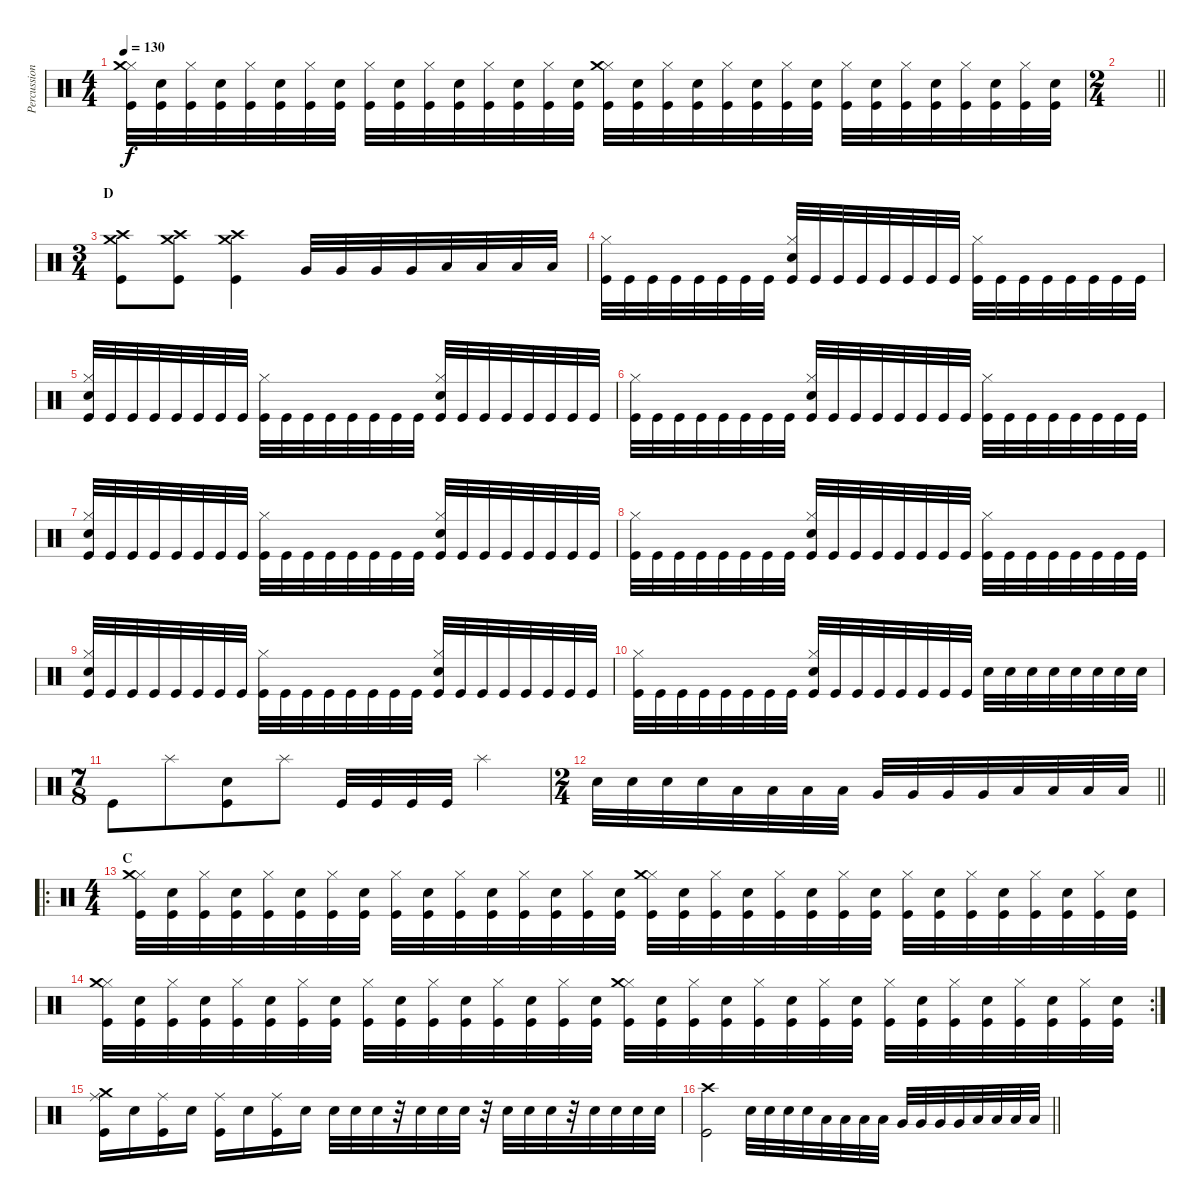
\track ("Percussion" "Percussion") {instrument percussion}
\staff {score}
\articulation defaults
\ts (4 4)
\tempo 130
\clef neutral
\ks c
("Kick (hit)" "Hi-Hat (closed)" "Crash medium (hit)").32{dy f} ("Kick (hit)" "Snare (hit) 2").32 ("Kick (hit)" "Hi-Hat (closed)").32 ("Kick (hit)" "Snare (hit) 2").32 ("Kick (hit)" "Hi-Hat (closed)").32 ("Kick (hit)" "Snare (hit) 2").32 ("Kick (hit)" "Hi-Hat (closed)").32 ("Kick (hit)" "Snare (hit) 2").32 ("Kick (hit)" "Hi-Hat (closed)").32 ("Kick (hit)" "Snare (hit) 2").32 ("Kick (hit)" "Hi-Hat (closed)").32 ("Kick (hit)" "Snare (hit) 2").32 ("Kick (hit)" "Hi-Hat (closed)").32 ("Kick (hit)" "Snare (hit) 2").32 ("Kick (hit)" "Hi-Hat (closed)").32 ("Kick (hit)" "Snare (hit) 2").32 ("Kick (hit)" "Hi-Hat (closed)" "Crash medium (hit)").32 ("Kick (hit)" "Snare (hit) 2").32 ("Kick (hit)" "Hi-Hat (closed)").32 ("Kick (hit)" "Snare (hit) 2").32 ("Kick (hit)" "Hi-Hat (closed)").32 ("Kick (hit)" "Snare (hit) 2").32 ("Kick (hit)" "Hi-Hat (closed)").32 ("Kick (hit)" "Snare (hit) 2").32 ("Kick (hit)" "Hi-Hat (closed)").32 ("Kick (hit)" "Snare (hit) 2").32 ("Kick (hit)" "Hi-Hat (closed)").32 ("Kick (hit)" "Snare (hit) 2").32 ("Kick (hit)" "Hi-Hat (closed)").32 ("Kick (hit)" "Snare (hit) 2").32 ("Kick (hit)" "Hi-Hat (closed)").32 ("Kick (hit)" "Snare (hit) 2").32 |
\ts (2 4)
\barLineRight lightlight
|
\ts (3 4)
\section ("" "D")
("Kick (hit)" "Crash medium (hit)" "Crash high (hit)").8 ("Kick (hit)" "Crash medium (hit)" "Crash high (hit)").8 ("Kick (hit)" "Crash medium (hit)" "Crash high (hit)").4 "Very Low Tom (hit)".32 "Very Low Tom (hit)".32 "Very Low Tom (hit)".32 "Very Low Tom (hit)".32 "Low Floor Tom (hit)".32 "Low Floor Tom (hit)".32 "Low Floor Tom (hit)".32 "Low Floor Tom (hit)".32 |
("Kick (hit)" "Hi-Hat (closed)").32 "Kick (hit)".32 "Kick (hit)".32 "Kick (hit)".32 "Kick (hit)".32 "Kick (hit)".32 "Kick (hit)".32 "Kick (hit)".32 ("Kick (hit)" "Hi-Hat (closed)" "Snare (hit) 2").32 "Kick (hit)".32 "Kick (hit)".32 "Kick (hit)".32 "Kick (hit)".32 "Kick (hit)".32 "Kick (hit)".32 "Kick (hit)".32 ("Kick (hit)" "Hi-Hat (closed)").32 "Kick (hit)".32 "Kick (hit)".32 "Kick (hit)".32 "Kick (hit)".32 "Kick (hit)".32 "Kick (hit)".32 "Kick (hit)".32 |
("Kick (hit)" "Hi-Hat (closed)" "Snare (hit) 2").32 "Kick (hit)".32 "Kick (hit)".32 "Kick (hit)".32 "Kick (hit)".32 "Kick (hit)".32 "Kick (hit)".32 "Kick (hit)".32 ("Kick (hit)" "Hi-Hat (closed)").32 "Kick (hit)".32 "Kick (hit)".32 "Kick (hit)".32 "Kick (hit)".32 "Kick (hit)".32 "Kick (hit)".32 "Kick (hit)".32 ("Kick (hit)" "Hi-Hat (closed)" "Snare (hit) 2").32 "Kick (hit)".32 "Kick (hit)".32 "Kick (hit)".32 "Kick (hit)".32 "Kick (hit)".32 "Kick (hit)".32 "Kick (hit)".32 |
("Kick (hit)" "Hi-Hat (closed)").32 "Kick (hit)".32 "Kick (hit)".32 "Kick (hit)".32 "Kick (hit)".32 "Kick (hit)".32 "Kick (hit)".32 "Kick (hit)".32 ("Kick (hit)" "Hi-Hat (closed)" "Snare (hit) 2").32 "Kick (hit)".32 "Kick (hit)".32 "Kick (hit)".32 "Kick (hit)".32 "Kick (hit)".32 "Kick (hit)".32 "Kick (hit)".32 ("Kick (hit)" "Hi-Hat (closed)").32 "Kick (hit)".32 "Kick (hit)".32 "Kick (hit)".32 "Kick (hit)".32 "Kick (hit)".32 "Kick (hit)".32 "Kick (hit)".32 |
("Kick (hit)" "Hi-Hat (closed)" "Snare (hit) 2").32 "Kick (hit)".32 "Kick (hit)".32 "Kick (hit)".32 "Kick (hit)".32 "Kick (hit)".32 "Kick (hit)".32 "Kick (hit)".32 ("Kick (hit)" "Hi-Hat (closed)").32 "Kick (hit)".32 "Kick (hit)".32 "Kick (hit)".32 "Kick (hit)".32 "Kick (hit)".32 "Kick (hit)".32 "Kick (hit)".32 ("Kick (hit)" "Hi-Hat (closed)" "Snare (hit) 2").32 "Kick (hit)".32 "Kick (hit)".32 "Kick (hit)".32 "Kick (hit)".32 "Kick (hit)".32 "Kick (hit)".32 "Kick (hit)".32 |
("Kick (hit)" "Hi-Hat (closed)").32 "Kick (hit)".32 "Kick (hit)".32 "Kick (hit)".32 "Kick (hit)".32 "Kick (hit)".32 "Kick (hit)".32 "Kick (hit)".32 ("Kick (hit)" "Hi-Hat (closed)" "Snare (hit) 2").32 "Kick (hit)".32 "Kick (hit)".32 "Kick (hit)".32 "Kick (hit)".32 "Kick (hit)".32 "Kick (hit)".32 "Kick (hit)".32 ("Kick (hit)" "Hi-Hat (closed)").32 "Kick (hit)".32 "Kick (hit)".32 "Kick (hit)".32 "Kick (hit)".32 "Kick (hit)".32 "Kick (hit)".32 "Kick (hit)".32 |
("Kick (hit)" "Hi-Hat (closed)" "Snare (hit) 2").32 "Kick (hit)".32 "Kick (hit)".32 "Kick (hit)".32 "Kick (hit)".32 "Kick (hit)".32 "Kick (hit)".32 "Kick (hit)".32 ("Kick (hit)" "Hi-Hat (closed)").32 "Kick (hit)".32 "Kick (hit)".32 "Kick (hit)".32 "Kick (hit)".32 "Kick (hit)".32 "Kick (hit)".32 "Kick (hit)".32 ("Kick (hit)" "Hi-Hat (closed)" "Snare (hit) 2").32 "Kick (hit)".32 "Kick (hit)".32 "Kick (hit)".32 "Kick (hit)".32 "Kick (hit)".32 "Kick (hit)".32 "Kick (hit)".32 |
("Kick (hit)" "Hi-Hat (closed)").32 "Kick (hit)".32 "Kick (hit)".32 "Kick (hit)".32 "Kick (hit)".32 "Kick (hit)".32 "Kick (hit)".32 "Kick (hit)".32 ("Kick (hit)" "Hi-Hat (closed)" "Snare (hit) 2").32 "Kick (hit)".32 "Kick (hit)".32 "Kick (hit)".32 "Kick (hit)".32 "Kick (hit)".32 "Kick (hit)".32 "Kick (hit)".32 "Snare (hit) 2".32 "Snare (hit) 2".32 "Snare (hit) 2".32 "Snare (hit) 2".32 "Snare (hit) 2".32 "Snare (hit) 2".32 "Snare (hit) 2".32 "Snare (hit) 2".32 |
\ts (7 8)
"Kick (hit)".8 "Splash (hit)".8 ("Kick (hit)" "Electric Snare (hit)").8 "Splash (hit)".8 "Kick (hit)".32 "Kick (hit)".32 "Kick (hit)".32 "Kick (hit)".32 "Splash (hit)".4 |
\ts (2 4)
\barLineRight lightlight "Snare (hit) 2".32 "Snare (hit) 2".32 "Snare (hit) 2".32 "Snare (hit) 2".32 "Low Tom (hit)".32 "Low Tom (hit)".32 "Low Tom (hit)".32 "Low Tom (hit)".32 "Very Low Tom (hit)".32 "Very Low Tom (hit)".32 "Very Low Tom (hit)".32 "Very Low Tom (hit)".32 "Low Floor Tom (hit)".32 "Low Floor Tom (hit)".32 "Low Floor Tom (hit)".32 "Low Floor Tom (hit)".32
|
\ro
\ts (4 4)
\section ("" "C")
("Kick (hit)" "Hi-Hat (closed)" "Crash medium (hit)").32 ("Kick (hit)" "Snare (hit) 2").32 ("Kick (hit)" "Hi-Hat (closed)").32 ("Kick (hit)" "Snare (hit) 2").32 ("Kick (hit)" "Hi-Hat (closed)").32 ("Kick (hit)" "Snare (hit) 2").32 ("Kick (hit)" "Hi-Hat (closed)").32 ("Kick (hit)" "Snare (hit) 2").32 ("Kick (hit)" "Hi-Hat (closed)").32 ("Kick (hit)" "Snare (hit) 2").32 ("Kick (hit)" "Hi-Hat (closed)").32 ("Kick (hit)" "Snare (hit) 2").32 ("Kick (hit)" "Hi-Hat (closed)").32 ("Kick (hit)" "Snare (hit) 2").32 ("Kick (hit)" "Hi-Hat (closed)").32 ("Kick (hit)" "Snare (hit) 2").32 ("Kick (hit)" "Hi-Hat (closed)" "Crash medium (hit)").32 ("Kick (hit)" "Snare (hit) 2").32 ("Kick (hit)" "Hi-Hat (closed)").32 ("Kick (hit)" "Snare (hit) 2").32 ("Kick (hit)" "Hi-Hat (closed)").32 ("Kick (hit)" "Snare (hit) 2").32 ("Kick (hit)" "Hi-Hat (closed)").32 ("Kick (hit)" "Snare (hit) 2").32 ("Kick (hit)" "Hi-Hat (closed)").32 ("Kick (hit)" "Snare (hit) 2").32 ("Kick (hit)" "Hi-Hat (closed)").32 ("Kick (hit)" "Snare (hit) 2").32 ("Kick (hit)" "Hi-Hat (closed)").32 ("Kick (hit)" "Snare (hit) 2").32 ("Kick (hit)" "Hi-Hat (closed)").32 ("Kick (hit)" "Snare (hit) 2").32 |
\rc 2
("Kick (hit)" "Hi-Hat (closed)" "Crash medium (hit)").32 ("Kick (hit)" "Snare (hit) 2").32 ("Kick (hit)" "Hi-Hat (closed)").32 ("Kick (hit)" "Snare (hit) 2").32 ("Kick (hit)" "Hi-Hat (closed)").32 ("Kick (hit)" "Snare (hit) 2").32 ("Kick (hit)" "Hi-Hat (closed)").32 ("Kick (hit)" "Snare (hit) 2").32 ("Kick (hit)" "Hi-Hat (closed)").32 ("Kick (hit)" "Snare (hit) 2").32 ("Kick (hit)" "Hi-Hat (closed)").32 ("Kick (hit)" "Snare (hit) 2").32 ("Kick (hit)" "Hi-Hat (closed)").32 ("Kick (hit)" "Snare (hit) 2").32 ("Kick (hit)" "Hi-Hat (closed)").32 ("Kick (hit)" "Snare (hit) 2").32 ("Kick (hit)" "Hi-Hat (closed)" "Crash medium (hit)").32 ("Kick (hit)" "Snare (hit) 2").32 ("Kick (hit)" "Hi-Hat (closed)").32 ("Kick (hit)" "Snare (hit) 2").32 ("Kick (hit)" "Hi-Hat (closed)").32 ("Kick (hit)" "Snare (hit) 2").32 ("Kick (hit)" "Hi-Hat (closed)").32 ("Kick (hit)" "Snare (hit) 2").32 ("Kick (hit)" "Hi-Hat (closed)").32 ("Kick (hit)" "Snare (hit) 2").32 ("Kick (hit)" "Hi-Hat (closed)").32 ("Kick (hit)" "Snare (hit) 2").32 ("Kick (hit)" "Hi-Hat (closed)").32 ("Kick (hit)" "Snare (hit) 2").32 ("Kick (hit)" "Hi-Hat (closed)").32 ("Kick (hit)" "Snare (hit) 2").32 |
("Kick (hit)" "Ride (middle)" "Crash medium (hit)").16 "Snare (hit) 2".16 ("Kick (hit)" "Ride (middle)").16 "Snare (hit) 2".16 ("Kick (hit)" "Ride (middle)").16 "Snare (hit) 2".16 ("Kick (hit)" "Ride (middle)").16 "Snare (hit) 2".16 "Snare (hit) 2".32 "Snare (hit) 2".32 "Snare (hit) 2".32 r.32 "Snare (hit) 2".32 "Snare (hit) 2".32 "Snare (hit) 2".32 r.32 "Snare (hit) 2".32 "Snare (hit) 2".32 "Snare (hit) 2".32 r.32 "Snare (hit) 2".32 "Snare (hit) 2".32 "Snare (hit) 2".32 "Snare (hit) 2".32 |
\barLineRight lightlight
("Kick (hit)" "Crash high (hit)").2 "Snare (hit) 2".32 "Snare (hit) 2".32 "Snare (hit) 2".32 "Snare (hit) 2".32 "Low Tom (hit)".32 "Low Tom (hit)".32 "Low Tom (hit)".32 "Low Tom (hit)".32 "Very Low Tom (hit)".32 "Very Low Tom (hit)".32 "Very Low Tom (hit)".32 "Very Low Tom (hit)".32 "Low Floor Tom (hit)".32 "Low Floor Tom (hit)".32 "Low Floor Tom (hit)".32 "Low Floor Tom (hit)".32
